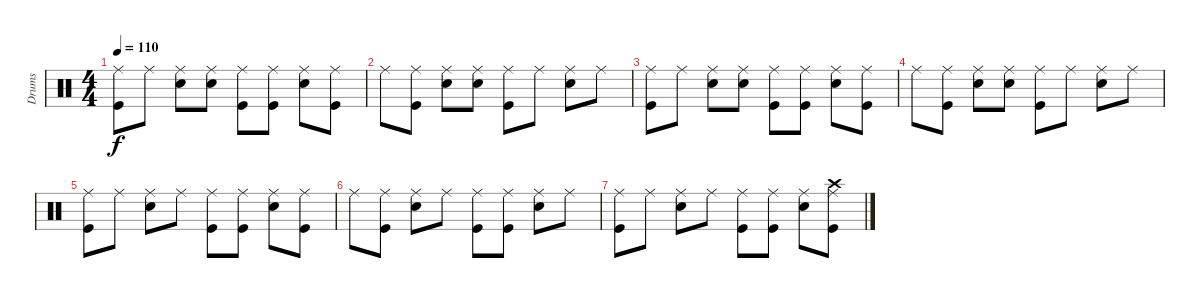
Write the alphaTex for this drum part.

\track ("Drums" "Drums") {instrument percussion}
\staff {score}
\articulation defaults
\ts (4 4)
\tempo 110
\clef neutral
\ks c
("Ride (middle)" "Kick (hit)").8{dy f} "Ride (middle)".8 ("Ride (middle)" "Snare (hit) 2").8 ("Ride (middle)" "Snare (hit) 2").8 ("Ride (middle)" "Kick (hit)").8 ("Ride (middle)" "Kick (hit)").8 ("Ride (middle)" "Snare (hit) 2").8 ("Ride (middle)" "Kick (hit)").8 |
"Ride (middle)".8 ("Ride (middle)" "Kick (hit)").8 ("Ride (middle)" "Snare (hit) 2").8 ("Ride (middle)" "Snare (hit) 2").8 ("Ride (middle)" "Kick (hit)").8 "Ride (middle)".8 ("Ride (middle)" "Snare (hit) 2").8 "Ride (middle)".8 |
("Ride (middle)" "Kick (hit)").8 "Ride (middle)".8 ("Ride (middle)" "Snare (hit) 2").8 ("Ride (middle)" "Snare (hit) 2").8 ("Ride (middle)" "Kick (hit)").8 ("Ride (middle)" "Kick (hit)").8 ("Ride (middle)" "Snare (hit) 2").8 ("Ride (middle)" "Kick (hit)").8 |
"Ride (middle)".8 ("Ride (middle)" "Kick (hit)").8 ("Ride (middle)" "Snare (hit) 2").8 ("Ride (middle)" "Snare (hit) 2").8 ("Ride (middle)" "Kick (hit)").8 "Ride (middle)".8 ("Ride (middle)" "Snare (hit) 2").8 "Ride (middle)".8 |
("Ride (middle)" "Kick (hit)").8 "Ride (middle)".8 ("Ride (middle)" "Snare (hit) 2").8 "Ride (middle)".8 ("Ride (middle)" "Kick (hit)").8 ("Ride (middle)" "Kick (hit)").8 ("Ride (middle)" "Snare (hit) 2").8 ("Ride (middle)" "Kick (hit)").8 |
"Ride (middle)".8 ("Ride (middle)" "Kick (hit)").8 ("Ride (middle)" "Snare (hit) 2").8 "Ride (middle)".8 ("Ride (middle)" "Kick (hit)").8 ("Ride (middle)" "Kick (hit)").8 ("Ride (middle)" "Snare (hit) 2").8 "Ride (middle)".8 |
("Ride (middle)" "Kick (hit)").8 "Ride (middle)".8 ("Ride (middle)" "Snare (hit) 2").8 "Ride (middle)".8 ("Ride (middle)" "Kick (hit)").8 ("Ride (middle)" "Kick (hit)").8 ("Ride (middle)" "Snare (hit) 2").8 ("Ride (middle)" "Crash high (hit)" "Kick (hit)").8
